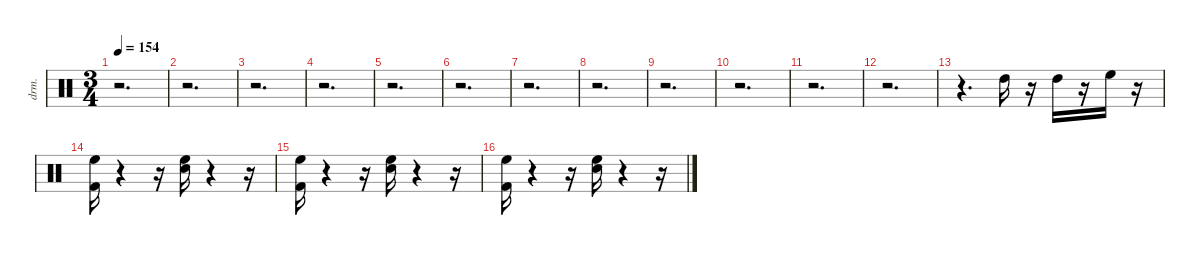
\defaultSystemsLayout 4
\hideDynamics
\bracketExtendMode nobrackets
\otherSystemsTrackNameOrientation horizontal
\track ("EZdrummer 3" "drm.") {instrument percussion}
\staff {score}
\articulation defaults
\ts (3 4)
\tempo 154
\clef neutral
\ks aminor
r.2{d dy f beam Down} |
r.2{d beam Down} |
r.2{d beam Down} |
r.2{d beam Down} |
r.2{d beam Down} |
r.2{d beam Down} |
r.2{d beam Down} |
r.2{d beam Down} |
r.2{d beam Down} |
r.2{d beam Down} |
r.2{d beam Down} |
r.2{d beam Down} |
r.4{d beam Down} "High Tom (hit)".16{dy ff beam Down} r.16{beam Down} "High Tom (hit)".16{dy mp beam Down} r.16{beam Down} "High Floor Tom (hit)".16{dy f beam Down} r.16{beam Down} |
("Kick (hit) 2" "High Floor Tom (hit)").16{dy fff beam Down} r.4{beam Down} r.16{beam Down} ("Snare (hit) 2" "High Floor Tom (hit)").16{dy f beam Down} r.4{beam Down} r.16{beam Down} |
("Kick (hit) 2" "High Floor Tom (hit)").16{dy fff beam Down} r.4{beam Down} r.16{beam Down} ("Snare (hit) 2" "High Floor Tom (hit)").16{dy mf beam Down} r.4{beam Down} r.16{beam Down} |
("Kick (hit) 2" "High Floor Tom (hit)").16{dy ff beam Down} r.4{beam Down} r.16{beam Down} ("Snare (hit) 2" "High Floor Tom (hit)").16{dy f beam Down} r.4{beam Down} r.16{beam Down}
